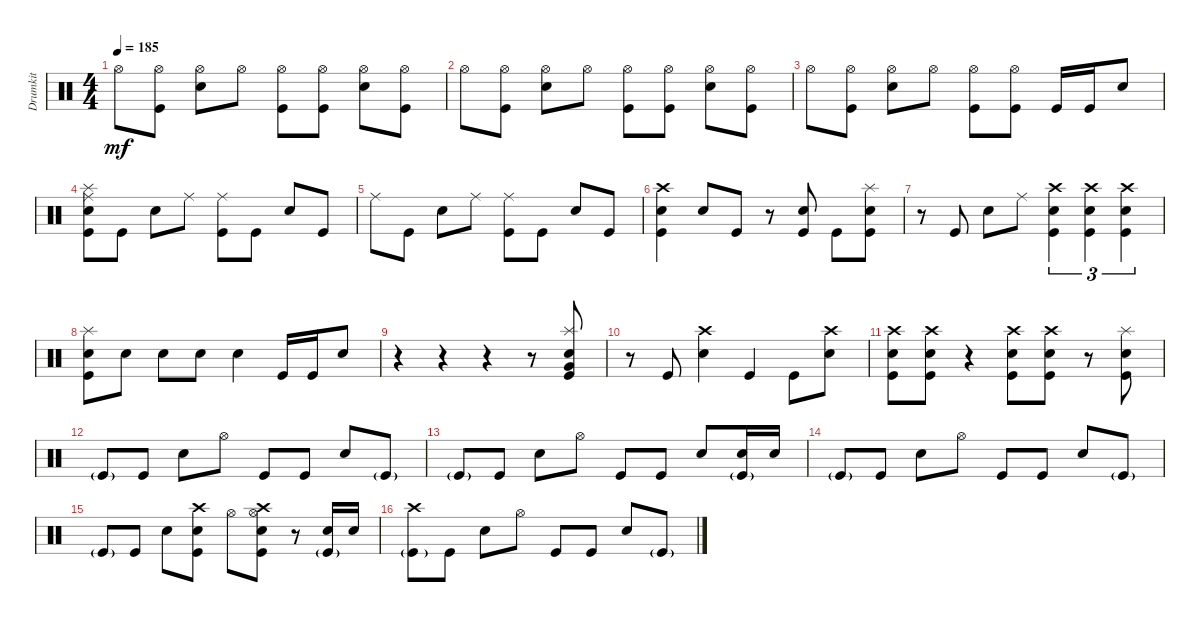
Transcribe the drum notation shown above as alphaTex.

\track ("Drumkit" "Drumkit") {instrument percussion}
\staff {score}
\articulation defaults
\ts (4 4)
\tempo 185
\clef neutral
\ks c "Hi-Hat (open)".8{dy mf}
("Hi-Hat (open)" "Kick (hit)").8 ("Snare (hit) 2" "Hi-Hat (open)").8 "Hi-Hat (open)".8 ("Hi-Hat (open)" "Kick (hit)").8 ("Kick (hit)" "Hi-Hat (open)").8 ("Snare (hit) 2" "Hi-Hat (open)").8 ("Kick (hit)" "Hi-Hat (open)").8 |
"Hi-Hat (open)".8 ("Hi-Hat (open)" "Kick (hit)").8 ("Snare (hit) 2" "Hi-Hat (open)").8 "Hi-Hat (open)".8 ("Hi-Hat (open)" "Kick (hit)").8 ("Kick (hit)" "Hi-Hat (open)").8 ("Snare (hit) 2" "Hi-Hat (open)").8 ("Kick (hit)" "Hi-Hat (open)").8 |
"Hi-Hat (open)".8 ("Hi-Hat (open)" "Kick (hit)").8 ("Snare (hit) 2" "Hi-Hat (open)").8 "Hi-Hat (open)".8 ("Hi-Hat (open)" "Kick (hit)").8 ("Kick (hit)" "Hi-Hat (open)").8 "Kick (hit)".16 "Kick (hit)".16 "Snare (hit) 2".8 |
("Kick (hit)" "Snare (hit) 2" "Splash (hit)" "Ride (middle)").8 "Kick (hit)".8 "Snare (hit) 2".8 "Ride (middle)".8 ("Kick (hit)" "Ride (middle)").8 "Kick (hit)".8 "Snare (hit) 2".8 "Kick (hit)".8 |
"Ride (middle)".8 "Kick (hit)".8 "Snare (hit) 2".8 "Ride (middle)".8 ("Kick (hit)" "Ride (middle)").8 "Kick (hit)".8 "Snare (hit) 2".8 "Kick (hit)".8 |
("Kick (hit)" "Snare (hit) 2" "Crash high (hit)").4 "Snare (hit) 2".8 "Kick (hit)".8 r.8 ("Kick (hit)" "Snare (hit) 2").8 "Kick (hit)".8 ("Kick (hit)" "Snare (hit) 2" "Splash (hit)").8 |
r.8 "Kick (hit)".8 "Snare (hit) 2".8 "Ride (middle)".8 ("Kick (hit)" "Snare (hit) 2" "Crash high (hit)").4{tu (3 2)} ("Kick (hit)" "Snare (hit) 2" "Crash high (hit)").4{tu (3 2)} ("Kick (hit)" "Snare (hit) 2" "Crash high (hit)").4{tu (3 2)} |
("Kick (hit)" "Snare (hit) 2" "Splash (hit)").8 "Snare (hit) 2".8 "Snare (hit) 2".8 "Snare (hit) 2".8 "Snare (hit) 2".4 "Kick (hit)".16 "Kick (hit)".16 "Snare (hit) 2".8 |
r.4 r.4 r.4 r.8 ("Kick (hit)" "Snare (hit) 2" "Splash (hit)" "Very Low Tom (hit)").8 |
r.8 "Kick (hit)".8 ("Snare (hit) 2" "Crash high (hit)").4 "Kick (hit)".4 "Kick (hit)".8 ("Snare (hit) 2" "Crash high (hit)").8 |
("Kick (hit)" "Snare (hit) 2" "Crash high (hit)").8 ("Kick (hit)" "Snare (hit) 2" "Crash high (hit)").8 r.4 ("Kick (hit)" "Snare (hit) 2" "Crash high (hit)").8 ("Kick (hit)" "Snare (hit) 2" "Crash high (hit)").8 r.8 ("Kick (hit)" "Snare (hit) 2" "Splash (hit)").8 |
"Kick (hit)"{g}.8 "Kick (hit)".8 "Snare (hit) 2".8 "Hi-Hat (open)".8 "Kick (hit)".8 "Kick (hit)".8 "Snare (hit) 2".8 "Kick (hit)"{g}.8 |
"Kick (hit)"{g}.8 "Kick (hit)".8 "Snare (hit) 2".8 "Hi-Hat (open)".8 "Kick (hit)".8 "Kick (hit)".8 "Snare (hit) 2".8 ("Kick (hit)"{g} "Snare (hit) 2").16 "Snare (hit) 2".16 |
"Kick (hit)"{g}.8 "Kick (hit)".8 "Snare (hit) 2".8 "Hi-Hat (open)".8 "Kick (hit)".8 "Kick (hit)".8 "Snare (hit) 2".8 "Kick (hit)"{g}.8 |
"Kick (hit)"{g}.8 "Kick (hit)".8 "Snare (hit) 2".8 ("Kick (hit)" "Snare (hit) 2" "Crash high (hit)").8 "Hi-Hat (open)".8 ("Kick (hit)" "Snare (hit) 2" "Hi-Hat (open)" "Crash high (hit)").8 r.8 ("Kick (hit)"{g} "Snare (hit) 2").16 "Snare (hit) 2".16 |
("Kick (hit)"{g} "Crash high (hit)").8 "Kick (hit)".8 "Snare (hit) 2".8 "Hi-Hat (open)".8 "Kick (hit)".8 "Kick (hit)".8 "Snare (hit) 2".8 "Kick (hit)"{g}.8
